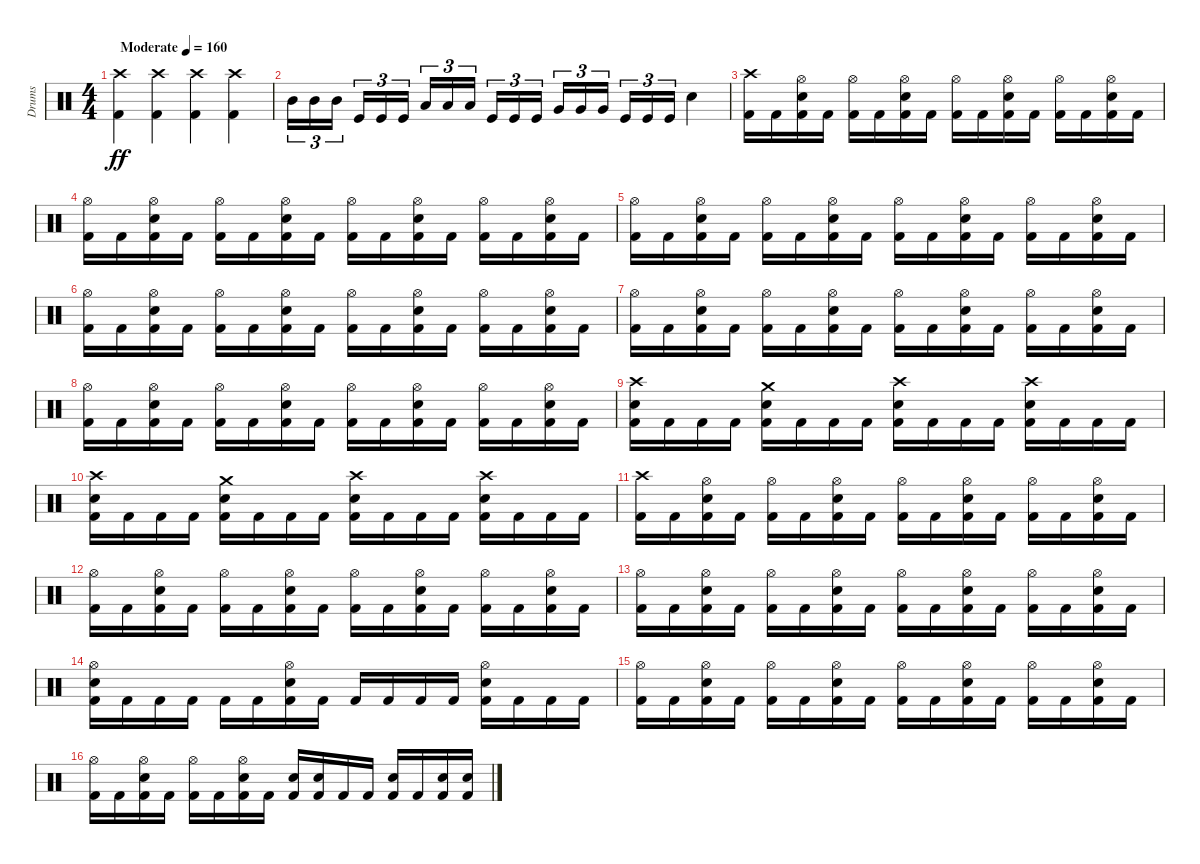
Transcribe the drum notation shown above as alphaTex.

\track ("Drums" "Drums") {instrument percussion}
\staff {score}
\articulation defaults
\ts (4 4)
\tempo (160 "Moderate")
\clef neutral
\ks c
("Crash high (hit)" "Kick (hit) 2").4{dy ff} ("Crash high (hit)" "Kick (hit) 2").4 ("Crash high (hit)" "Kick (hit) 2").4 ("Crash high (hit)" "Kick (hit) 2").4 |
"Mid Tom (hit)".16{tu (3 2)} "Mid Tom (hit)".16{tu (3 2)} "Mid Tom (hit)".16{tu (3 2) beam splitsecondary} "Kick (hit)".16{tu (3 2)} "Kick (hit)".16{tu (3 2)} "Kick (hit)".16{tu (3 2)} "Low Tom (hit)".16{tu (3 2)} "Low Tom (hit)".16{tu (3 2)} "Low Tom (hit)".16{tu (3 2) beam splitsecondary} "Kick (hit)".16{tu (3 2)} "Kick (hit)".16{tu (3 2)} "Kick (hit)".16{tu (3 2)} "Very Low Tom (hit)".16{tu (3 2)} "Very Low Tom (hit)".16{tu (3 2)} "Very Low Tom (hit)".16{tu (3 2) beam splitsecondary} "Kick (hit)".16{tu (3 2)} "Kick (hit)".16{tu (3 2)} "Kick (hit)".16{tu (3 2)} "Electric Snare (hit)".4 |
("Crash high (hit)" "Kick (hit) 2").16 "Kick (hit) 2".16 ("Hi-Hat (open)" "Electric Snare (hit)" "Kick (hit) 2").16 "Kick (hit) 2".16 ("Hi-Hat (open)" "Kick (hit) 2").16 "Kick (hit) 2".16 ("Hi-Hat (open)" "Electric Snare (hit)" "Kick (hit) 2").16 "Kick (hit) 2".16 ("Hi-Hat (open)" "Kick (hit) 2").16 "Kick (hit) 2".16 ("Hi-Hat (open)" "Electric Snare (hit)" "Kick (hit) 2").16 "Kick (hit) 2".16 ("Hi-Hat (open)" "Kick (hit) 2").16 "Kick (hit) 2".16 ("Hi-Hat (open)" "Electric Snare (hit)" "Kick (hit) 2").16 "Kick (hit) 2".16 |
("Hi-Hat (open)" "Kick (hit) 2").16 "Kick (hit) 2".16 ("Hi-Hat (open)" "Electric Snare (hit)" "Kick (hit) 2").16 "Kick (hit) 2".16 ("Hi-Hat (open)" "Kick (hit) 2").16 "Kick (hit) 2".16 ("Hi-Hat (open)" "Electric Snare (hit)" "Kick (hit) 2").16 "Kick (hit) 2".16 ("Hi-Hat (open)" "Kick (hit) 2").16 "Kick (hit) 2".16 ("Hi-Hat (open)" "Electric Snare (hit)" "Kick (hit) 2").16 "Kick (hit) 2".16 ("Hi-Hat (open)" "Kick (hit) 2").16 "Kick (hit) 2".16 ("Hi-Hat (open)" "Electric Snare (hit)" "Kick (hit) 2").16 "Kick (hit) 2".16 |
("Hi-Hat (open)" "Kick (hit) 2").16 "Kick (hit) 2".16 ("Hi-Hat (open)" "Electric Snare (hit)" "Kick (hit) 2").16 "Kick (hit) 2".16 ("Hi-Hat (open)" "Kick (hit) 2").16 "Kick (hit) 2".16 ("Hi-Hat (open)" "Electric Snare (hit)" "Kick (hit) 2").16 "Kick (hit) 2".16 ("Hi-Hat (open)" "Kick (hit) 2").16 "Kick (hit) 2".16 ("Hi-Hat (open)" "Electric Snare (hit)" "Kick (hit) 2").16 "Kick (hit) 2".16 ("Hi-Hat (open)" "Kick (hit) 2").16 "Kick (hit) 2".16 ("Hi-Hat (open)" "Electric Snare (hit)" "Kick (hit) 2").16 "Kick (hit) 2".16 |
("Hi-Hat (open)" "Kick (hit) 2").16 "Kick (hit) 2".16 ("Hi-Hat (open)" "Electric Snare (hit)" "Kick (hit) 2").16 "Kick (hit) 2".16 ("Hi-Hat (open)" "Kick (hit) 2").16 "Kick (hit) 2".16 ("Hi-Hat (open)" "Electric Snare (hit)" "Kick (hit) 2").16 "Kick (hit) 2".16 ("Hi-Hat (open)" "Kick (hit) 2").16 "Kick (hit) 2".16 ("Hi-Hat (open)" "Electric Snare (hit)" "Kick (hit) 2").16 "Kick (hit) 2".16 ("Hi-Hat (open)" "Kick (hit) 2").16 "Kick (hit) 2".16 ("Hi-Hat (open)" "Electric Snare (hit)" "Kick (hit) 2").16 "Kick (hit) 2".16 |
("Hi-Hat (open)" "Kick (hit) 2").16 "Kick (hit) 2".16 ("Hi-Hat (open)" "Electric Snare (hit)" "Kick (hit) 2").16 "Kick (hit) 2".16 ("Hi-Hat (open)" "Kick (hit) 2").16 "Kick (hit) 2".16 ("Hi-Hat (open)" "Electric Snare (hit)" "Kick (hit) 2").16 "Kick (hit) 2".16 ("Hi-Hat (open)" "Kick (hit) 2").16 "Kick (hit) 2".16 ("Hi-Hat (open)" "Electric Snare (hit)" "Kick (hit) 2").16 "Kick (hit) 2".16 ("Hi-Hat (open)" "Kick (hit) 2").16 "Kick (hit) 2".16 ("Hi-Hat (open)" "Electric Snare (hit)" "Kick (hit) 2").16 "Kick (hit) 2".16 |
("Hi-Hat (open)" "Kick (hit) 2").16 "Kick (hit) 2".16 ("Hi-Hat (open)" "Electric Snare (hit)" "Kick (hit) 2").16 "Kick (hit) 2".16 ("Hi-Hat (open)" "Kick (hit) 2").16 "Kick (hit) 2".16 ("Hi-Hat (open)" "Electric Snare (hit)" "Kick (hit) 2").16 "Kick (hit) 2".16 ("Hi-Hat (open)" "Kick (hit) 2").16 "Kick (hit) 2".16 ("Hi-Hat (open)" "Electric Snare (hit)" "Kick (hit) 2").16 "Kick (hit) 2".16 ("Hi-Hat (open)" "Kick (hit) 2").16 "Kick (hit) 2".16 ("Hi-Hat (open)" "Electric Snare (hit)" "Kick (hit) 2").16 "Kick (hit) 2".16 |
("Crash high (hit)" "Electric Snare (hit)" "Kick (hit) 2").16 "Kick (hit) 2".16 "Kick (hit) 2".16 "Kick (hit) 2".16 ("Crash medium (hit)" "Electric Snare (hit)" "Kick (hit) 2").16 "Kick (hit) 2".16 "Kick (hit) 2".16 "Kick (hit) 2".16 ("Crash high (hit)" "Electric Snare (hit)" "Kick (hit) 2").16 "Kick (hit) 2".16 "Kick (hit) 2".16 "Kick (hit) 2".16 ("Crash high (hit)" "Electric Snare (hit)" "Kick (hit) 2").16 "Kick (hit) 2".16 "Kick (hit) 2".16 "Kick (hit) 2".16 |
("Crash high (hit)" "Electric Snare (hit)" "Kick (hit) 2").16 "Kick (hit) 2".16 "Kick (hit) 2".16 "Kick (hit) 2".16 ("Crash medium (hit)" "Electric Snare (hit)" "Kick (hit) 2").16 "Kick (hit) 2".16 "Kick (hit) 2".16 "Kick (hit) 2".16 ("Crash high (hit)" "Electric Snare (hit)" "Kick (hit) 2").16 "Kick (hit) 2".16 "Kick (hit) 2".16 "Kick (hit) 2".16 ("Crash high (hit)" "Electric Snare (hit)" "Kick (hit) 2").16 "Kick (hit) 2".16 "Kick (hit) 2".16 "Kick (hit) 2".16 |
("Crash high (hit)" "Kick (hit) 2").16 "Kick (hit) 2".16 ("Hi-Hat (open)" "Electric Snare (hit)" "Kick (hit) 2").16 "Kick (hit) 2".16 ("Hi-Hat (open)" "Kick (hit) 2").16 "Kick (hit) 2".16 ("Hi-Hat (open)" "Electric Snare (hit)" "Kick (hit) 2").16 "Kick (hit) 2".16 ("Hi-Hat (open)" "Kick (hit) 2").16 "Kick (hit) 2".16 ("Hi-Hat (open)" "Electric Snare (hit)" "Kick (hit) 2").16 "Kick (hit) 2".16 ("Hi-Hat (open)" "Kick (hit) 2").16 "Kick (hit) 2".16 ("Hi-Hat (open)" "Electric Snare (hit)" "Kick (hit) 2").16 "Kick (hit) 2".16 |
("Hi-Hat (open)" "Kick (hit) 2").16 "Kick (hit) 2".16 ("Hi-Hat (open)" "Electric Snare (hit)" "Kick (hit) 2").16 "Kick (hit) 2".16 ("Hi-Hat (open)" "Kick (hit) 2").16 "Kick (hit) 2".16 ("Hi-Hat (open)" "Electric Snare (hit)" "Kick (hit) 2").16 "Kick (hit) 2".16 ("Hi-Hat (open)" "Kick (hit) 2").16 "Kick (hit) 2".16 ("Hi-Hat (open)" "Electric Snare (hit)" "Kick (hit) 2").16 "Kick (hit) 2".16 ("Hi-Hat (open)" "Kick (hit) 2").16 "Kick (hit) 2".16 ("Hi-Hat (open)" "Electric Snare (hit)" "Kick (hit) 2").16 "Kick (hit) 2".16 |
("Hi-Hat (open)" "Kick (hit) 2").16 "Kick (hit) 2".16 ("Hi-Hat (open)" "Electric Snare (hit)" "Kick (hit) 2").16 "Kick (hit) 2".16 ("Hi-Hat (open)" "Kick (hit) 2").16 "Kick (hit) 2".16 ("Hi-Hat (open)" "Electric Snare (hit)" "Kick (hit) 2").16 "Kick (hit) 2".16 ("Hi-Hat (open)" "Kick (hit) 2").16 "Kick (hit) 2".16 ("Hi-Hat (open)" "Electric Snare (hit)" "Kick (hit) 2").16 "Kick (hit) 2".16 ("Hi-Hat (open)" "Kick (hit) 2").16 "Kick (hit) 2".16 ("Hi-Hat (open)" "Electric Snare (hit)" "Kick (hit) 2").16 "Kick (hit) 2".16 |
("Hi-Hat (open)" "Electric Snare (hit)" "Kick (hit) 2").16 "Kick (hit) 2".16 "Kick (hit) 2".16 "Kick (hit) 2".16 "Kick (hit) 2".16 "Kick (hit) 2".16 ("Hi-Hat (open)" "Electric Snare (hit)" "Kick (hit) 2").16 "Kick (hit) 2".16 "Kick (hit) 2".16 "Kick (hit) 2".16 "Kick (hit) 2".16 "Kick (hit) 2".16 ("Hi-Hat (open)" "Electric Snare (hit)" "Kick (hit) 2").16 "Kick (hit) 2".16 "Kick (hit) 2".16 "Kick (hit) 2".16 |
("Hi-Hat (open)" "Kick (hit) 2").16 "Kick (hit) 2".16 ("Hi-Hat (open)" "Electric Snare (hit)" "Kick (hit) 2").16 "Kick (hit) 2".16 ("Hi-Hat (open)" "Kick (hit) 2").16 "Kick (hit) 2".16 ("Hi-Hat (open)" "Electric Snare (hit)" "Kick (hit) 2").16 "Kick (hit) 2".16 ("Hi-Hat (open)" "Kick (hit) 2").16 "Kick (hit) 2".16 ("Hi-Hat (open)" "Electric Snare (hit)" "Kick (hit) 2").16 "Kick (hit) 2".16 ("Hi-Hat (open)" "Kick (hit) 2").16 "Kick (hit) 2".16 ("Hi-Hat (open)" "Electric Snare (hit)" "Kick (hit) 2").16 "Kick (hit) 2".16 |
("Hi-Hat (open)" "Kick (hit) 2").16 "Kick (hit) 2".16 ("Hi-Hat (open)" "Electric Snare (hit)" "Kick (hit) 2").16 "Kick (hit) 2".16 ("Hi-Hat (open)" "Kick (hit) 2").16 "Kick (hit) 2".16 ("Hi-Hat (open)" "Electric Snare (hit)" "Kick (hit) 2").16 "Kick (hit) 2".16 ("Electric Snare (hit)" "Kick (hit) 2").16 ("Electric Snare (hit)" "Kick (hit) 2").16 "Kick (hit) 2".16 "Kick (hit) 2".16 ("Electric Snare (hit)" "Kick (hit) 2").16 "Kick (hit) 2".16 ("Electric Snare (hit)" "Kick (hit) 2").16 ("Electric Snare (hit)" "Kick (hit) 2").16
